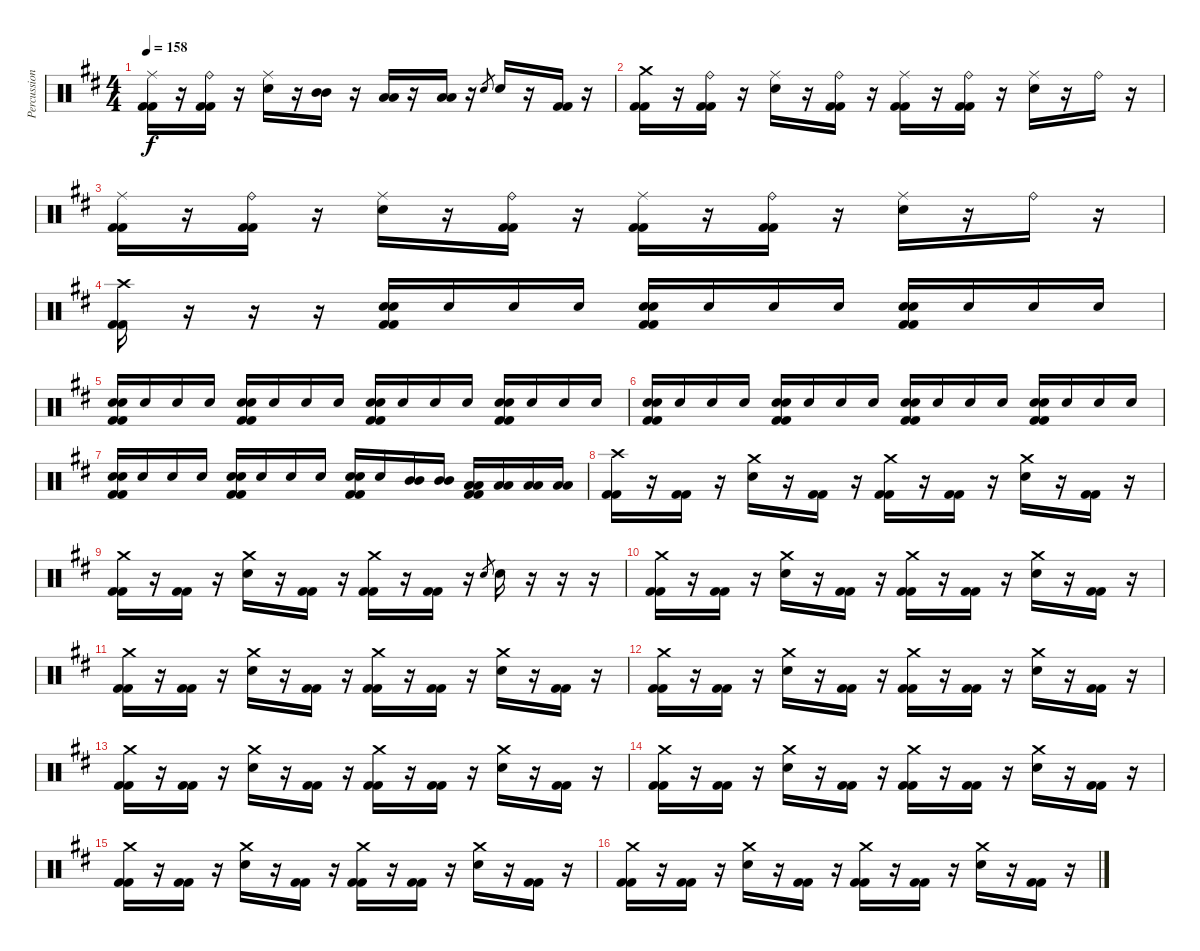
\track ("Percussion" "Percussion") {instrument percussion}
\staff {score}
\articulation defaults
\ts (4 4)
\tempo 158
\clef neutral
\ks d
("Ride (middle)" "Kick (hit) 2" "Kick (hit) 2").16{dy f} r.16 ("Ride (bell)" "Kick (hit) 2" "Kick (hit) 2").16 r.16 ("Ride (middle)" "Electric Snare (hit)").16 r.16 ("Mid Tom (hit)" "Mid Tom (hit)").16 r.16 ("Low Tom (hit)" "Low Tom (hit)").16 r.16 ("Low Floor Tom (hit)" "Low Floor Tom (hit)").16 r.16 "Electric Snare (hit)".8{gr} "Electric Snare (hit)".16 r.16 ("Kick (hit) 2" "Kick (hit) 2").16 r.16 |
("Crash medium (hit)" "Kick (hit) 2" "Kick (hit) 2").16 r.16 ("Ride (bell)" "Kick (hit) 2" "Kick (hit) 2").16 r.16 ("Ride (middle)" "Electric Snare (hit)").16 r.16 ("Ride (bell)" "Kick (hit) 2" "Kick (hit) 2").16 r.16 ("Ride (middle)" "Kick (hit) 2" "Kick (hit) 2").16 r.16 ("Ride (bell)" "Kick (hit) 2" "Kick (hit) 2").16 r.16 ("Ride (middle)" "Electric Snare (hit)").16 r.16 "Ride (bell)".16 r.16 |
("Ride (middle)" "Kick (hit) 2" "Kick (hit) 2").16 r.16 ("Ride (bell)" "Kick (hit) 2" "Kick (hit) 2").16 r.16 ("Ride (middle)" "Electric Snare (hit)").16 r.16 ("Ride (bell)" "Kick (hit) 2" "Kick (hit) 2").16 r.16 ("Ride (middle)" "Kick (hit) 2" "Kick (hit) 2").16 r.16 ("Ride (bell)" "Kick (hit) 2" "Kick (hit) 2").16 r.16 ("Ride (middle)" "Electric Snare (hit)").16 r.16 "Ride (bell)".16 r.16 |
("Crash high (hit)" "Kick (hit) 2" "Kick (hit) 2").16 r.16 r.16 r.16 ("Electric Snare (hit)" "Electric Snare (hit)" "Kick (hit) 2" "Kick (hit) 2").16 "Electric Snare (hit)".16 "Electric Snare (hit)".16 "Electric Snare (hit)".16 ("Electric Snare (hit)" "Electric Snare (hit)" "Kick (hit) 2" "Kick (hit) 2").16 "Electric Snare (hit)".16 "Electric Snare (hit)".16 "Electric Snare (hit)".16 ("Electric Snare (hit)" "Electric Snare (hit)" "Kick (hit) 2" "Kick (hit) 2").16 "Electric Snare (hit)".16 "Electric Snare (hit)".16 "Electric Snare (hit)".16 |
("Electric Snare (hit)" "Electric Snare (hit)" "Kick (hit) 2" "Kick (hit) 2").16 "Electric Snare (hit)".16 "Electric Snare (hit)".16 "Electric Snare (hit)".16 ("Electric Snare (hit)" "Electric Snare (hit)" "Kick (hit) 2" "Kick (hit) 2").16 "Electric Snare (hit)".16 "Electric Snare (hit)".16 "Electric Snare (hit)".16 ("Electric Snare (hit)" "Electric Snare (hit)" "Kick (hit) 2" "Kick (hit) 2").16 "Electric Snare (hit)".16 "Electric Snare (hit)".16 "Electric Snare (hit)".16 ("Electric Snare (hit)" "Electric Snare (hit)" "Kick (hit) 2" "Kick (hit) 2").16 "Electric Snare (hit)".16 "Electric Snare (hit)".16 "Electric Snare (hit)".16 |
("Electric Snare (hit)" "Electric Snare (hit)" "Kick (hit) 2" "Kick (hit) 2").16 "Electric Snare (hit)".16 "Electric Snare (hit)".16 "Electric Snare (hit)".16 ("Electric Snare (hit)" "Electric Snare (hit)" "Kick (hit) 2" "Kick (hit) 2").16 "Electric Snare (hit)".16 "Electric Snare (hit)".16 "Electric Snare (hit)".16 ("Electric Snare (hit)" "Electric Snare (hit)" "Kick (hit) 2" "Kick (hit) 2").16 "Electric Snare (hit)".16 "Electric Snare (hit)".16 "Electric Snare (hit)".16 ("Electric Snare (hit)" "Electric Snare (hit)" "Kick (hit) 2" "Kick (hit) 2").16 "Electric Snare (hit)".16 "Electric Snare (hit)".16 "Electric Snare (hit)".16 |
("Electric Snare (hit)" "Electric Snare (hit)" "Kick (hit) 2" "Kick (hit) 2").16 "Electric Snare (hit)".16 "Electric Snare (hit)".16 "Electric Snare (hit)".16 ("Electric Snare (hit)" "Electric Snare (hit)" "Kick (hit) 2" "Kick (hit) 2").16 "Electric Snare (hit)".16 "Electric Snare (hit)".16 "Electric Snare (hit)".16 ("Electric Snare (hit)" "Electric Snare (hit)" "Kick (hit) 2" "Kick (hit) 2").16 "Electric Snare (hit)".16 ("Mid Tom (hit)" "Mid Tom (hit)").16 ("Mid Tom (hit)" "Mid Tom (hit)").16 ("Low Tom (hit)" "Low Tom (hit)" "Kick (hit) 2" "Kick (hit) 2").16 ("Low Tom (hit)" "Low Tom (hit)").16 ("Low Floor Tom (hit)" "Low Floor Tom (hit)").16 ("Low Floor Tom (hit)" "Low Floor Tom (hit)").16 |
("Crash high (hit)" "Kick (hit) 2" "Kick (hit) 2").16 r.16 ("Kick (hit) 2" "Kick (hit) 2").16 r.16 ("Crash medium (hit)" "Electric Snare (hit)").16 r.16 ("Kick (hit) 2" "Kick (hit) 2").16 r.16 ("Crash medium (hit)" "Kick (hit) 2" "Kick (hit) 2").16 r.16 ("Kick (hit) 2" "Kick (hit) 2").16 r.16 ("Crash medium (hit)" "Electric Snare (hit)").16 r.16 ("Kick (hit) 2" "Kick (hit) 2").16 r.16 |
("Crash medium (hit)" "Kick (hit) 2" "Kick (hit) 2").16 r.16 ("Kick (hit) 2" "Kick (hit) 2").16 r.16 ("Crash medium (hit)" "Electric Snare (hit)").16 r.16 ("Kick (hit) 2" "Kick (hit) 2").16 r.16 ("Crash medium (hit)" "Kick (hit) 2" "Kick (hit) 2").16 r.16 ("Kick (hit) 2" "Kick (hit) 2").16 r.16 "Electric Snare (hit)".8{gr} "Electric Snare (hit)".16 r.16 r.16 r.16 |
("Crash medium (hit)" "Kick (hit) 2" "Kick (hit) 2").16 r.16 ("Kick (hit) 2" "Kick (hit) 2").16 r.16 ("Crash medium (hit)" "Electric Snare (hit)").16 r.16 ("Kick (hit) 2" "Kick (hit) 2").16 r.16 ("Crash medium (hit)" "Kick (hit) 2" "Kick (hit) 2").16 r.16 ("Kick (hit) 2" "Kick (hit) 2").16 r.16 ("Crash medium (hit)" "Electric Snare (hit)").16 r.16 ("Kick (hit) 2" "Kick (hit) 2").16 r.16 |
("Crash medium (hit)" "Kick (hit) 2" "Kick (hit) 2").16 r.16 ("Kick (hit) 2" "Kick (hit) 2").16 r.16 ("Crash medium (hit)" "Electric Snare (hit)").16 r.16 ("Kick (hit) 2" "Kick (hit) 2").16 r.16 ("Crash medium (hit)" "Kick (hit) 2" "Kick (hit) 2").16 r.16 ("Kick (hit) 2" "Kick (hit) 2").16 r.16 ("Crash medium (hit)" "Electric Snare (hit)").16 r.16 ("Kick (hit) 2" "Kick (hit) 2").16 r.16 |
("Crash medium (hit)" "Kick (hit) 2" "Kick (hit) 2").16 r.16 ("Kick (hit) 2" "Kick (hit) 2").16 r.16 ("Crash medium (hit)" "Electric Snare (hit)").16 r.16 ("Kick (hit) 2" "Kick (hit) 2").16 r.16 ("Crash medium (hit)" "Kick (hit) 2" "Kick (hit) 2").16 r.16 ("Kick (hit) 2" "Kick (hit) 2").16 r.16 ("Crash medium (hit)" "Electric Snare (hit)").16 r.16 ("Kick (hit) 2" "Kick (hit) 2").16 r.16 |
("Crash medium (hit)" "Kick (hit) 2" "Kick (hit) 2").16 r.16 ("Kick (hit) 2" "Kick (hit) 2").16 r.16 ("Crash medium (hit)" "Electric Snare (hit)").16 r.16 ("Kick (hit) 2" "Kick (hit) 2").16 r.16 ("Crash medium (hit)" "Kick (hit) 2" "Kick (hit) 2").16 r.16 ("Kick (hit) 2" "Kick (hit) 2").16 r.16 ("Crash medium (hit)" "Electric Snare (hit)").16 r.16 ("Kick (hit) 2" "Kick (hit) 2").16 r.16 |
("Crash medium (hit)" "Kick (hit) 2" "Kick (hit) 2").16 r.16 ("Kick (hit) 2" "Kick (hit) 2").16 r.16 ("Crash medium (hit)" "Electric Snare (hit)").16 r.16 ("Kick (hit) 2" "Kick (hit) 2").16 r.16 ("Crash medium (hit)" "Kick (hit) 2" "Kick (hit) 2").16 r.16 ("Kick (hit) 2" "Kick (hit) 2").16 r.16 ("Crash medium (hit)" "Electric Snare (hit)").16 r.16 ("Kick (hit) 2" "Kick (hit) 2").16 r.16 |
("Crash medium (hit)" "Kick (hit) 2" "Kick (hit) 2").16 r.16 ("Kick (hit) 2" "Kick (hit) 2").16 r.16 ("Crash medium (hit)" "Electric Snare (hit)").16 r.16 ("Kick (hit) 2" "Kick (hit) 2").16 r.16 ("Crash medium (hit)" "Kick (hit) 2" "Kick (hit) 2").16 r.16 ("Kick (hit) 2" "Kick (hit) 2").16 r.16 ("Crash medium (hit)" "Electric Snare (hit)").16 r.16 ("Kick (hit) 2" "Kick (hit) 2").16 r.16 |
("Crash medium (hit)" "Kick (hit) 2" "Kick (hit) 2").16 r.16 ("Kick (hit) 2" "Kick (hit) 2").16 r.16 ("Crash medium (hit)" "Electric Snare (hit)").16 r.16 ("Kick (hit) 2" "Kick (hit) 2").16 r.16 ("Crash medium (hit)" "Kick (hit) 2" "Kick (hit) 2").16 r.16 ("Kick (hit) 2" "Kick (hit) 2").16 r.16 ("Crash medium (hit)" "Electric Snare (hit)").16 r.16 ("Kick (hit) 2" "Kick (hit) 2").16 r.16
